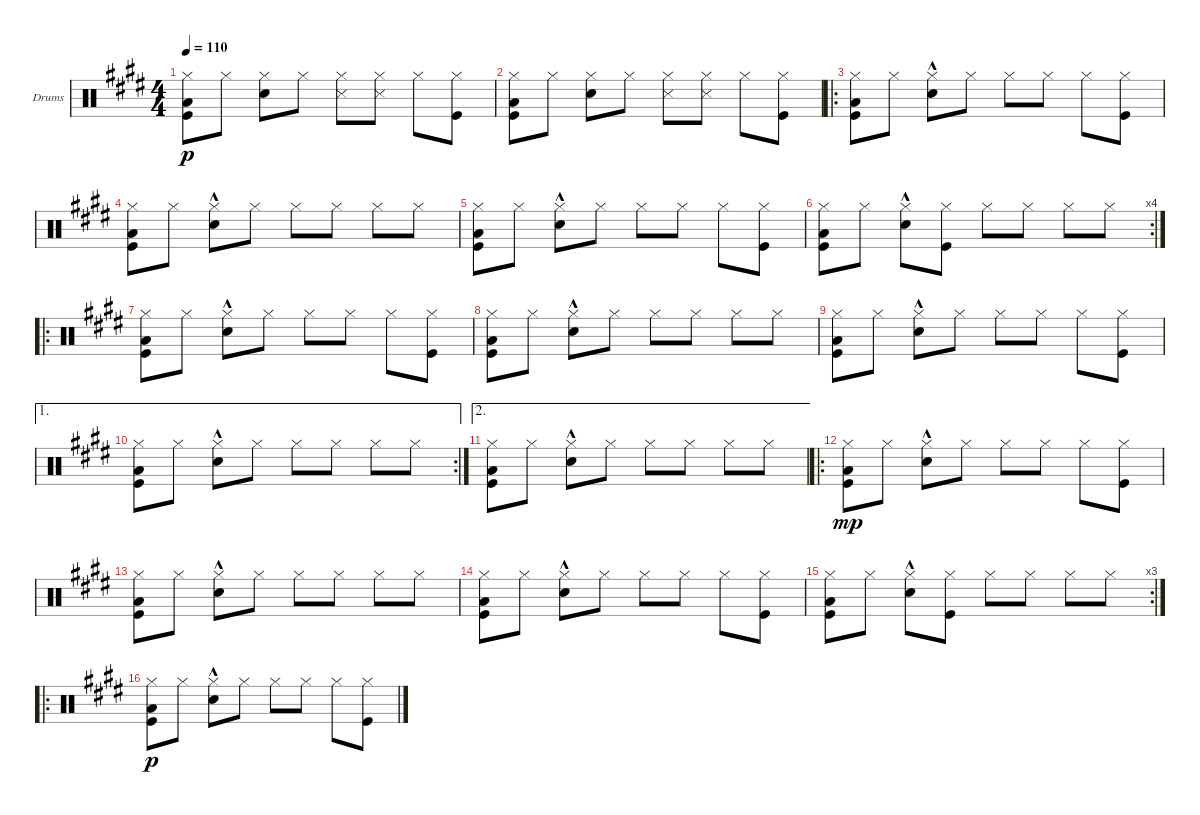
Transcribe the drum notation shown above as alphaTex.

\defaultSystemsLayout 4
\bracketExtendMode groupsimilarinstruments
\firstSystemTrackNameOrientation horizontal
\otherSystemsTrackNameOrientation horizontal
\track ("Drumkit" "Drums") {instrument percussion}
\staff {score}
\articulation defaults
\ts (4 4)
\tempo 110
\clef neutral
\ks c#minor
("Kick (hit)" "Hi-Hat (closed)" "Low Tom (hit)").8{dy p} "Hi-Hat (closed)".8 ("Hi-Hat (closed)" "Snare (hit) 2").8 "Hi-Hat (closed)".8 ("Hi-Hat (closed)" "Snare (side stick) 3").8 ("Hi-Hat (closed)" "Snare (side stick) 3").8 "Hi-Hat (closed)".8 ("Hi-Hat (closed)" "Kick (hit)").8 |
("Hi-Hat (closed)" "Kick (hit)" "Low Tom (hit)").8 "Hi-Hat (closed)".8 ("Hi-Hat (closed)" "Snare (hit) 2").8 "Hi-Hat (closed)".8 ("Hi-Hat (closed)" "Snare (side stick) 3").8 ("Hi-Hat (closed)" "Snare (side stick) 3").8 "Hi-Hat (closed)".8 ("Hi-Hat (closed)" "Kick (hit)").8 |
\ro
\scale
0.474178 ("Kick (hit)" "Hi-Hat (closed)" "Low Tom (hit)").8 "Hi-Hat (closed)".8 ("Hi-Hat (closed)" "Snare (hit) 2"{hac}).8 "Hi-Hat (closed)".8 "Hi-Hat (closed)".8 "Hi-Hat (closed)".8 "Hi-Hat (closed)".8 ("Hi-Hat (closed)" "Kick (hit)").8 |
\scale
0.262911 ("Kick (hit)" "Hi-Hat (closed)" "Low Tom (hit)").8 "Hi-Hat (closed)".8 ("Hi-Hat (closed)" "Snare (hit) 2"{hac}).8 "Hi-Hat (closed)".8 "Hi-Hat (closed)".8 "Hi-Hat (closed)".8 "Hi-Hat (closed)".8 "Hi-Hat (closed)".8 |
\scale
0.262911 ("Kick (hit)" "Hi-Hat (closed)" "Low Tom (hit)").8 "Hi-Hat (closed)".8 ("Hi-Hat (closed)" "Snare (hit) 2"{hac}).8 "Hi-Hat (closed)".8 "Hi-Hat (closed)".8 "Hi-Hat (closed)".8 "Hi-Hat (closed)".8 ("Hi-Hat (closed)" "Kick (hit)").8 |
\rc 4
("Kick (hit)" "Hi-Hat (closed)" "Low Tom (hit)").8 "Hi-Hat (closed)".8 ("Hi-Hat (closed)" "Snare (hit) 2"{hac}).8 ("Hi-Hat (closed)" "Kick (hit)").8 "Hi-Hat (closed)".8 "Hi-Hat (closed)".8 "Hi-Hat (closed)".8 "Hi-Hat (closed)".8 |
\ro
("Kick (hit)" "Hi-Hat (closed)" "Low Tom (hit)").8 "Hi-Hat (closed)".8 ("Hi-Hat (closed)" "Snare (hit) 2"{hac}).8 "Hi-Hat (closed)".8 "Hi-Hat (closed)".8 "Hi-Hat (closed)".8 "Hi-Hat (closed)".8 ("Hi-Hat (closed)" "Kick (hit)").8 |
("Kick (hit)" "Hi-Hat (closed)" "Low Tom (hit)").8 "Hi-Hat (closed)".8 ("Hi-Hat (closed)" "Snare (hit) 2"{hac}).8 "Hi-Hat (closed)".8 "Hi-Hat (closed)".8 "Hi-Hat (closed)".8 "Hi-Hat (closed)".8 "Hi-Hat (closed)".8 |
("Kick (hit)" "Hi-Hat (closed)" "Low Tom (hit)").8 "Hi-Hat (closed)".8 ("Hi-Hat (closed)" "Snare (hit) 2"{hac}).8 "Hi-Hat (closed)".8 "Hi-Hat (closed)".8 "Hi-Hat (closed)".8 "Hi-Hat (closed)".8 ("Hi-Hat (closed)" "Kick (hit)").8 |
\ae 1
\rc 2
("Kick (hit)" "Hi-Hat (closed)" "Low Tom (hit)").8 "Hi-Hat (closed)".8 ("Hi-Hat (closed)" "Snare (hit) 2"{hac}).8 "Hi-Hat (closed)".8 "Hi-Hat (closed)".8 "Hi-Hat (closed)".8 "Hi-Hat (closed)".8 "Hi-Hat (closed)".8 |
\ae 2
("Kick (hit)" "Hi-Hat (closed)" "Low Tom (hit)").8 "Hi-Hat (closed)".8 ("Hi-Hat (closed)" "Snare (hit) 2"{hac}).8 "Hi-Hat (closed)".8 "Hi-Hat (closed)".8 "Hi-Hat (closed)".8 "Hi-Hat (closed)".8 "Hi-Hat (closed)".8 |
\ro
("Kick (hit)" "Hi-Hat (closed)" "Low Tom (hit)").8{dy mp} "Hi-Hat (closed)".8 ("Hi-Hat (closed)" "Snare (hit) 2"{hac}).8 "Hi-Hat (closed)".8 "Hi-Hat (closed)".8 "Hi-Hat (closed)".8 "Hi-Hat (closed)".8 ("Hi-Hat (closed)" "Kick (hit)").8 |
("Kick (hit)" "Hi-Hat (closed)" "Low Tom (hit)").8 "Hi-Hat (closed)".8 ("Hi-Hat (closed)" "Snare (hit) 2"{hac}).8 "Hi-Hat (closed)".8 "Hi-Hat (closed)".8 "Hi-Hat (closed)".8 "Hi-Hat (closed)".8 "Hi-Hat (closed)".8 |
("Kick (hit)" "Hi-Hat (closed)" "Low Tom (hit)").8 "Hi-Hat (closed)".8 ("Hi-Hat (closed)" "Snare (hit) 2"{hac}).8 "Hi-Hat (closed)".8 "Hi-Hat (closed)".8 "Hi-Hat (closed)".8 "Hi-Hat (closed)".8 ("Hi-Hat (closed)" "Kick (hit)").8 |
\rc 3
("Kick (hit)" "Hi-Hat (closed)" "Low Tom (hit)").8 "Hi-Hat (closed)".8 ("Hi-Hat (closed)" "Snare (hit) 2"{hac}).8 ("Hi-Hat (closed)" "Kick (hit)").8 "Hi-Hat (closed)".8 "Hi-Hat (closed)".8 "Hi-Hat (closed)".8 "Hi-Hat (closed)".8 |
\ro
("Kick (hit)" "Hi-Hat (closed)" "Low Tom (hit)").8{dy p} "Hi-Hat (closed)".8 ("Hi-Hat (closed)" "Snare (hit) 2"{hac}).8 "Hi-Hat (closed)".8 "Hi-Hat (closed)".8 "Hi-Hat (closed)".8 "Hi-Hat (closed)".8 ("Hi-Hat (closed)" "Kick (hit)").8
